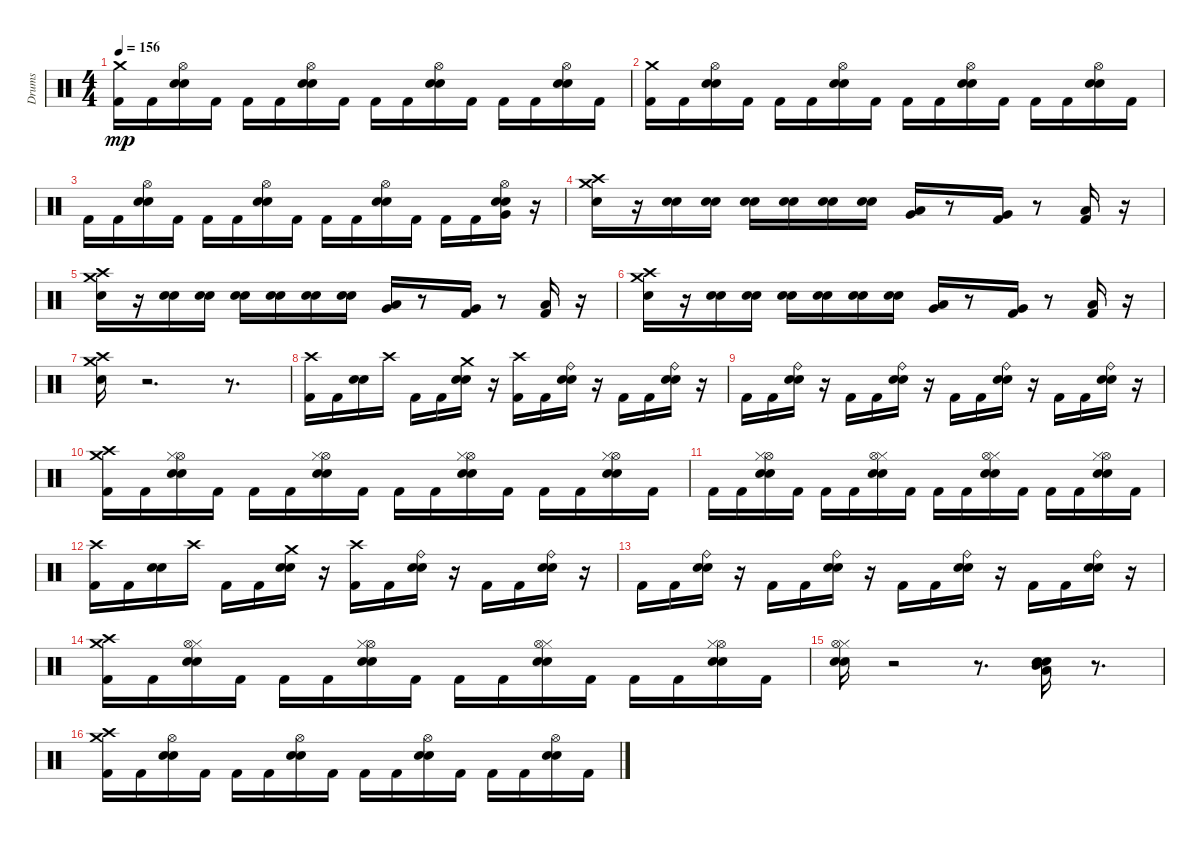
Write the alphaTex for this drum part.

\track ("Drums" "Drums") {instrument percussion}
\staff {score}
\articulation defaults
\ts (4 4)
\tempo 156
\clef neutral
\ks c
("Kick (hit) 2" "Crash medium (hit)").16{dy mp} "Kick (hit) 2".16 ("Hi-Hat (open)" "Snare (hit) 2" "Electric Snare (hit)").16 "Kick (hit) 2".16 "Kick (hit) 2".16 "Kick (hit) 2".16 ("Electric Snare (hit)" "Hi-Hat (open)" "Snare (hit) 2").16 "Kick (hit) 2".16 "Kick (hit) 2".16 "Kick (hit) 2".16 ("Snare (hit) 2" "Electric Snare (hit)" "Hi-Hat (open)").16 "Kick (hit) 2".16 "Kick (hit) 2".16 "Kick (hit) 2".16 ("Hi-Hat (open)" "Electric Snare (hit)" "Snare (hit) 2").16 "Kick (hit) 2".16 |
("Kick (hit) 2" "Crash medium (hit)").16 "Kick (hit) 2".16 ("Snare (hit) 2" "Hi-Hat (open)" "Electric Snare (hit)").16 "Kick (hit) 2".16 "Kick (hit) 2".16 "Kick (hit) 2".16 ("Electric Snare (hit)" "Snare (hit) 2" "Hi-Hat (open)").16 "Kick (hit) 2".16 "Kick (hit) 2".16 "Kick (hit) 2".16 ("Electric Snare (hit)" "Hi-Hat (open)" "Snare (hit) 2").16 "Kick (hit) 2".16 "Kick (hit) 2".16 "Kick (hit) 2".16 ("Hi-Hat (open)" "Snare (hit) 2" "Electric Snare (hit)").16 "Kick (hit) 2".16 |
"Kick (hit) 2".16 "Kick (hit) 2".16 ("Hi-Hat (open)" "Electric Snare (hit)" "Snare (hit) 2").16 "Kick (hit) 2".16 "Kick (hit) 2".16 "Kick (hit) 2".16 ("Snare (hit) 2" "Hi-Hat (open)" "Electric Snare (hit)").16 "Kick (hit) 2".16 "Kick (hit) 2".16 "Kick (hit) 2".16 ("Snare (hit) 2" "Electric Snare (hit)" "Hi-Hat (open)").16 "Kick (hit) 2".16 "Kick (hit) 2".16 "Kick (hit) 2".16 ("Electric Snare (hit)" "Snare (hit) 2" "Hi-Hat (open)" "Very Low Tom (hit)").16 r.16 |
("Electric Snare (hit)" "Crash high (hit)" "Crash medium (hit)").16 r.16 ("Electric Snare (hit)" "Snare (hit) 2").16 ("Snare (hit) 2" "Electric Snare (hit)").16 ("Electric Snare (hit)" "Snare (hit) 2").16 ("Electric Snare (hit)" "Snare (hit) 2").16 ("Snare (hit) 2" "Electric Snare (hit)").16 ("Electric Snare (hit)" "Snare (hit) 2").16 ("Low Tom (hit)" "Very Low Tom (hit)").16 r.8 ("Kick (hit) 2" "Very Low Tom (hit)").16 r.8 ("Low Floor Tom (hit)" "Kick (hit) 2").16 r.16 |
("Electric Snare (hit)" "Crash high (hit)" "Crash medium (hit)").16 r.16 ("Snare (hit) 2" "Electric Snare (hit)").16 ("Snare (hit) 2" "Electric Snare (hit)").16 ("Snare (hit) 2" "Electric Snare (hit)").16 ("Electric Snare (hit)" "Snare (hit) 2").16 ("Snare (hit) 2" "Electric Snare (hit)").16 ("Snare (hit) 2" "Electric Snare (hit)").16 ("Very Low Tom (hit)" "Low Tom (hit)").16 r.8 ("Very Low Tom (hit)" "Kick (hit) 2").16 r.8 ("Low Floor Tom (hit)" "Kick (hit) 2").16 r.16 |
("Crash medium (hit)" "Electric Snare (hit)" "Crash high (hit)").16 r.16 ("Snare (hit) 2" "Electric Snare (hit)").16 ("Snare (hit) 2" "Electric Snare (hit)").16 ("Snare (hit) 2" "Electric Snare (hit)").16 ("Electric Snare (hit)" "Snare (hit) 2").16 ("Electric Snare (hit)" "Snare (hit) 2").16 ("Electric Snare (hit)" "Snare (hit) 2").16 ("Low Tom (hit)" "Very Low Tom (hit)").16 r.8 ("Kick (hit) 2" "Very Low Tom (hit)").16 r.8 ("Low Floor Tom (hit)" "Kick (hit) 2").16 r.16 |
("Electric Snare (hit)" "Crash high (hit)" "Crash medium (hit)").16 r.2{d} r.8{d} |
("Crash high (hit)" "Kick (hit) 2").16 "Kick (hit) 2".16 ("Electric Snare (hit)" "Snare (hit) 2").16 "Crash high (hit)".16 "Kick (hit) 2".16 "Kick (hit) 2".16 ("Electric Snare (hit)" "Snare (hit) 2" "Crash medium (hit)").16 r.16 ("Crash high (hit)" "Kick (hit) 2").16 "Kick (hit) 2".16 ("Electric Snare (hit)" "Snare (hit) 2" "Ride (bell)").16 r.16 "Kick (hit) 2".16 "Kick (hit) 2".16 ("Ride (bell)" "Electric Snare (hit)" "Snare (hit) 2").16 r.16 |
"Kick (hit) 2".16 "Kick (hit) 2".16 ("Ride (bell)" "Snare (hit) 2" "Electric Snare (hit)").16 r.16 "Kick (hit) 2".16 "Kick (hit) 2".16 ("Ride (bell)" "Snare (hit) 2" "Electric Snare (hit)").16 r.16 "Kick (hit) 2".16 "Kick (hit) 2".16 ("Snare (hit) 2" "Electric Snare (hit)" "Ride (bell)").16 r.16 "Kick (hit) 2".16 "Kick (hit) 2".16 ("Ride (bell)" "Electric Snare (hit)" "Snare (hit) 2").16 r.16 |
("Kick (hit) 2" "Crash medium (hit)" "Crash high (hit)").16 "Kick (hit) 2".16 ("Snare (hit) 2" "Hi-Hat (open)" "Hi-Hat (closed)" "Electric Snare (hit)").16 "Kick (hit) 2".16 "Kick (hit) 2".16 "Kick (hit) 2".16 ("Electric Snare (hit)" "Snare (hit) 2" "Hi-Hat (open)" "Hi-Hat (closed)").16 "Kick (hit) 2".16 "Kick (hit) 2".16 "Kick (hit) 2".16 ("Hi-Hat (open)" "Electric Snare (hit)" "Snare (hit) 2" "Hi-Hat (closed)").16 "Kick (hit) 2".16 "Kick (hit) 2".16 "Kick (hit) 2".16 ("Hi-Hat (open)" "Snare (hit) 2" "Electric Snare (hit)" "Hi-Hat (closed)").16 "Kick (hit) 2".16 |
"Kick (hit) 2".16 "Kick (hit) 2".16 ("Hi-Hat (open)" "Snare (hit) 2" "Hi-Hat (closed)" "Electric Snare (hit)").16 "Kick (hit) 2".16 "Kick (hit) 2".16 "Kick (hit) 2".16 ("Hi-Hat (closed)" "Electric Snare (hit)" "Hi-Hat (open)" "Snare (hit) 2").16 "Kick (hit) 2".16 "Kick (hit) 2".16 "Kick (hit) 2".16 ("Electric Snare (hit)" "Hi-Hat (closed)" "Snare (hit) 2" "Hi-Hat (open)").16 "Kick (hit) 2".16 "Kick (hit) 2".16 "Kick (hit) 2".16 ("Hi-Hat (open)" "Electric Snare (hit)" "Snare (hit) 2" "Hi-Hat (closed)").16 "Kick (hit) 2".16 |
("Crash high (hit)" "Kick (hit) 2").16 "Kick (hit) 2".16 ("Electric Snare (hit)" "Snare (hit) 2").16 "Crash high (hit)".16 "Kick (hit) 2".16 "Kick (hit) 2".16 ("Snare (hit) 2" "Electric Snare (hit)" "Crash medium (hit)").16 r.16 ("Kick (hit) 2" "Crash high (hit)").16 "Kick (hit) 2".16 ("Snare (hit) 2" "Electric Snare (hit)" "Ride (bell)").16 r.16 "Kick (hit) 2".16 "Kick (hit) 2".16 ("Electric Snare (hit)" "Ride (bell)" "Snare (hit) 2").16 r.16 |
"Kick (hit) 2".16 "Kick (hit) 2".16 ("Electric Snare (hit)" "Snare (hit) 2" "Ride (bell)").16 r.16 "Kick (hit) 2".16 "Kick (hit) 2".16 ("Snare (hit) 2" "Electric Snare (hit)" "Ride (bell)").16 r.16 "Kick (hit) 2".16 "Kick (hit) 2".16 ("Electric Snare (hit)" "Snare (hit) 2" "Ride (bell)").16 r.16 "Kick (hit) 2".16 "Kick (hit) 2".16 ("Electric Snare (hit)" "Snare (hit) 2" "Ride (bell)").16 r.16 |
("Crash high (hit)" "Crash medium (hit)" "Kick (hit) 2").16 "Kick (hit) 2".16 ("Snare (hit) 2" "Electric Snare (hit)" "Hi-Hat (closed)" "Hi-Hat (open)").16 "Kick (hit) 2".16 "Kick (hit) 2".16 "Kick (hit) 2".16 ("Hi-Hat (open)" "Electric Snare (hit)" "Snare (hit) 2" "Hi-Hat (closed)").16 "Kick (hit) 2".16 "Kick (hit) 2".16 "Kick (hit) 2".16 ("Electric Snare (hit)" "Hi-Hat (closed)" "Hi-Hat (open)" "Snare (hit) 2").16 "Kick (hit) 2".16 "Kick (hit) 2".16 "Kick (hit) 2".16 ("Electric Snare (hit)" "Snare (hit) 2" "Hi-Hat (open)" "Hi-Hat (closed)").16 "Kick (hit) 2".16 |
("Snare (hit) 2" "Electric Snare (hit)" "Hi-Hat (closed)" "Hi-Hat (open)").16 r.2 r.8{d} ("Low Tom (hit)" "Mid Tom (hit)" "Electric Snare (hit)" "Snare (hit) 2").16 r.8{d} |
("Crash high (hit)" "Kick (hit) 2" "Crash medium (hit)").16 "Kick (hit) 2".16 ("Hi-Hat (open)" "Electric Snare (hit)" "Snare (hit) 2").16 "Kick (hit) 2".16 "Kick (hit) 2".16 "Kick (hit) 2".16 ("Snare (hit) 2" "Hi-Hat (open)" "Electric Snare (hit)").16 "Kick (hit) 2".16 "Kick (hit) 2".16 "Kick (hit) 2".16 ("Electric Snare (hit)" "Hi-Hat (open)" "Snare (hit) 2").16 "Kick (hit) 2".16 "Kick (hit) 2".16 "Kick (hit) 2".16 ("Electric Snare (hit)" "Snare (hit) 2" "Hi-Hat (open)").16 "Kick (hit) 2".16
